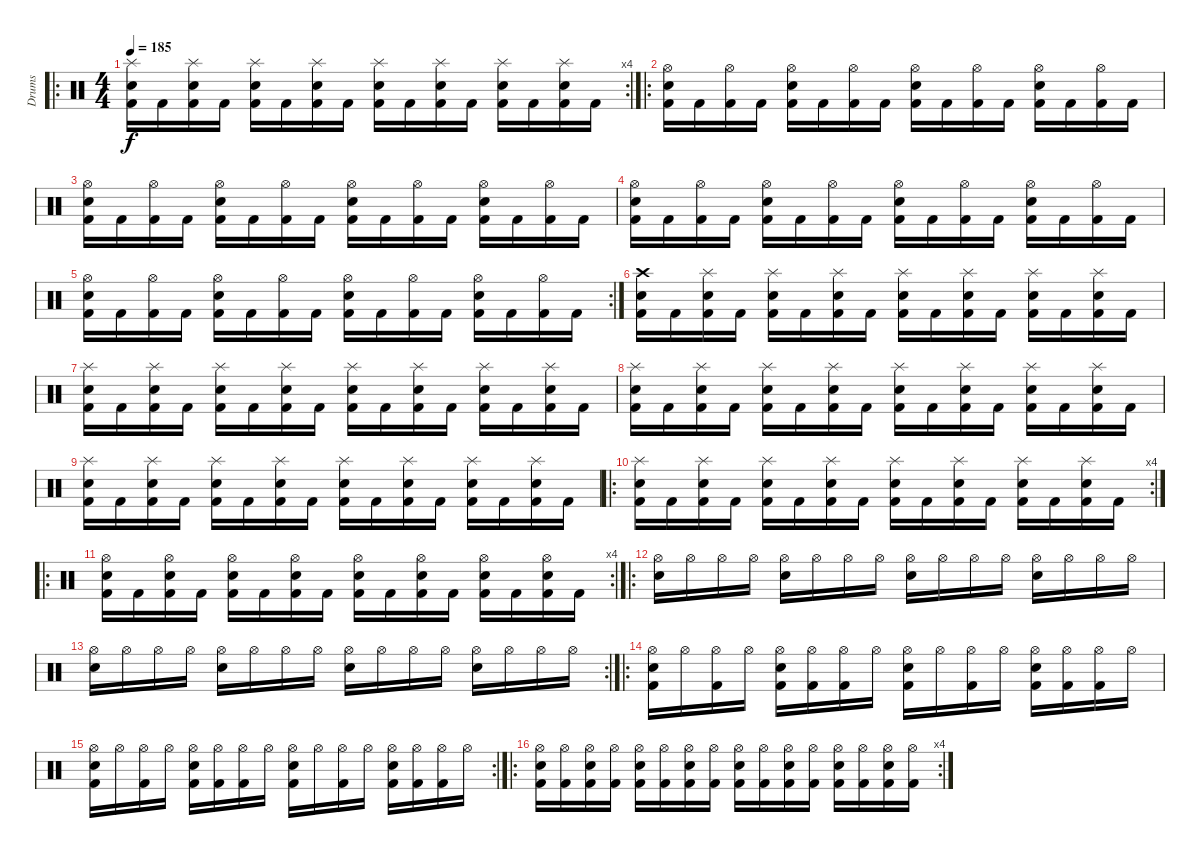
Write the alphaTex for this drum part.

\track ("Drums" "Drums") {instrument percussion}
\staff {score}
\articulation defaults
\ro
\rc 4
\ts (4 4)
\tempo 185
\clef neutral
\ks c
("Splash (hit)" "Snare (hit) 2" "Kick (hit) 2").16{dy f} "Kick (hit) 2".16 ("Splash (hit)" "Snare (hit) 2" "Kick (hit) 2").16 "Kick (hit) 2".16 ("Splash (hit)" "Snare (hit) 2" "Kick (hit) 2").16 "Kick (hit) 2".16 ("Splash (hit)" "Snare (hit) 2" "Kick (hit) 2").16 "Kick (hit) 2".16 ("Splash (hit)" "Snare (hit) 2" "Kick (hit) 2").16 "Kick (hit) 2".16 ("Splash (hit)" "Snare (hit) 2" "Kick (hit) 2").16 "Kick (hit) 2".16 ("Splash (hit)" "Snare (hit) 2" "Kick (hit) 2").16 "Kick (hit) 2".16 ("Splash (hit)" "Snare (hit) 2" "Kick (hit) 2").16 "Kick (hit) 2".16 |
\ro
("Hi-Hat (open)" "Snare (hit) 2" "Kick (hit) 2").16 "Kick (hit) 2".16 ("Hi-Hat (open)" "Kick (hit) 2").16 "Kick (hit) 2".16 ("Hi-Hat (open)" "Snare (hit) 2" "Kick (hit) 2").16 "Kick (hit) 2".16 ("Hi-Hat (open)" "Kick (hit) 2").16 "Kick (hit) 2".16 ("Hi-Hat (open)" "Snare (hit) 2" "Kick (hit) 2").16 "Kick (hit) 2".16 ("Hi-Hat (open)" "Kick (hit) 2").16 "Kick (hit) 2".16 ("Hi-Hat (open)" "Snare (hit) 2" "Kick (hit) 2").16 "Kick (hit) 2".16 ("Hi-Hat (open)" "Kick (hit) 2").16 "Kick (hit) 2".16 |
("Hi-Hat (open)" "Snare (hit) 2" "Kick (hit) 2").16 "Kick (hit) 2".16 ("Hi-Hat (open)" "Kick (hit) 2").16 "Kick (hit) 2".16 ("Hi-Hat (open)" "Snare (hit) 2" "Kick (hit) 2").16 "Kick (hit) 2".16 ("Hi-Hat (open)" "Kick (hit) 2").16 "Kick (hit) 2".16 ("Hi-Hat (open)" "Snare (hit) 2" "Kick (hit) 2").16 "Kick (hit) 2".16 ("Hi-Hat (open)" "Kick (hit) 2").16 "Kick (hit) 2".16 ("Hi-Hat (open)" "Snare (hit) 2" "Kick (hit) 2").16 "Kick (hit) 2".16 ("Hi-Hat (open)" "Kick (hit) 2").16 "Kick (hit) 2".16 |
("Hi-Hat (open)" "Snare (hit) 2" "Kick (hit) 2").16 "Kick (hit) 2".16 ("Hi-Hat (open)" "Kick (hit) 2").16 "Kick (hit) 2".16 ("Hi-Hat (open)" "Snare (hit) 2" "Kick (hit) 2").16 "Kick (hit) 2".16 ("Hi-Hat (open)" "Kick (hit) 2").16 "Kick (hit) 2".16 ("Hi-Hat (open)" "Snare (hit) 2" "Kick (hit) 2").16 "Kick (hit) 2".16 ("Hi-Hat (open)" "Kick (hit) 2").16 "Kick (hit) 2".16 ("Hi-Hat (open)" "Snare (hit) 2" "Kick (hit) 2").16 "Kick (hit) 2".16 ("Hi-Hat (open)" "Kick (hit) 2").16 "Kick (hit) 2".16 |
\rc 2
("Hi-Hat (open)" "Snare (hit) 2" "Kick (hit) 2").16 "Kick (hit) 2".16 ("Hi-Hat (open)" "Kick (hit) 2").16 "Kick (hit) 2".16 ("Hi-Hat (open)" "Snare (hit) 2" "Kick (hit) 2").16 "Kick (hit) 2".16 ("Hi-Hat (open)" "Kick (hit) 2").16 "Kick (hit) 2".16 ("Hi-Hat (open)" "Snare (hit) 2" "Kick (hit) 2").16 "Kick (hit) 2".16 ("Hi-Hat (open)" "Kick (hit) 2").16 "Kick (hit) 2".16 ("Hi-Hat (open)" "Snare (hit) 2" "Kick (hit) 2").16 "Kick (hit) 2".16 ("Hi-Hat (open)" "Kick (hit) 2").16 "Kick (hit) 2".16 |
("Crash high (hit)" "Snare (hit) 2" "Kick (hit) 2").16 "Kick (hit) 2".16 ("Splash (hit)" "Snare (hit) 2" "Kick (hit) 2").16 "Kick (hit) 2".16 ("Splash (hit)" "Snare (hit) 2" "Kick (hit) 2").16 "Kick (hit) 2".16 ("Splash (hit)" "Snare (hit) 2" "Kick (hit) 2").16 "Kick (hit) 2".16 ("Splash (hit)" "Snare (hit) 2" "Kick (hit) 2").16 "Kick (hit) 2".16 ("Splash (hit)" "Snare (hit) 2" "Kick (hit) 2").16 "Kick (hit) 2".16 ("Splash (hit)" "Snare (hit) 2" "Kick (hit) 2").16 "Kick (hit) 2".16 ("Splash (hit)" "Snare (hit) 2" "Kick (hit) 2").16 "Kick (hit) 2".16 |
("Splash (hit)" "Snare (hit) 2" "Kick (hit) 2").16 "Kick (hit) 2".16 ("Splash (hit)" "Snare (hit) 2" "Kick (hit) 2").16 "Kick (hit) 2".16 ("Splash (hit)" "Snare (hit) 2" "Kick (hit) 2").16 "Kick (hit) 2".16 ("Splash (hit)" "Snare (hit) 2" "Kick (hit) 2").16 "Kick (hit) 2".16 ("Splash (hit)" "Snare (hit) 2" "Kick (hit) 2").16 "Kick (hit) 2".16 ("Splash (hit)" "Snare (hit) 2" "Kick (hit) 2").16 "Kick (hit) 2".16 ("Splash (hit)" "Snare (hit) 2" "Kick (hit) 2").16 "Kick (hit) 2".16 ("Splash (hit)" "Snare (hit) 2" "Kick (hit) 2").16 "Kick (hit) 2".16 |
("Splash (hit)" "Snare (hit) 2" "Kick (hit) 2").16 "Kick (hit) 2".16 ("Splash (hit)" "Snare (hit) 2" "Kick (hit) 2").16 "Kick (hit) 2".16 ("Splash (hit)" "Snare (hit) 2" "Kick (hit) 2").16 "Kick (hit) 2".16 ("Splash (hit)" "Snare (hit) 2" "Kick (hit) 2").16 "Kick (hit) 2".16 ("Splash (hit)" "Snare (hit) 2" "Kick (hit) 2").16 "Kick (hit) 2".16 ("Splash (hit)" "Snare (hit) 2" "Kick (hit) 2").16 "Kick (hit) 2".16 ("Splash (hit)" "Snare (hit) 2" "Kick (hit) 2").16 "Kick (hit) 2".16 ("Splash (hit)" "Snare (hit) 2" "Kick (hit) 2").16 "Kick (hit) 2".16 |
("Splash (hit)" "Snare (hit) 2" "Kick (hit) 2").16 "Kick (hit) 2".16 ("Splash (hit)" "Snare (hit) 2" "Kick (hit) 2").16 "Kick (hit) 2".16 ("Splash (hit)" "Snare (hit) 2" "Kick (hit) 2").16 "Kick (hit) 2".16 ("Splash (hit)" "Snare (hit) 2" "Kick (hit) 2").16 "Kick (hit) 2".16 ("Splash (hit)" "Snare (hit) 2" "Kick (hit) 2").16 "Kick (hit) 2".16 ("Splash (hit)" "Snare (hit) 2" "Kick (hit) 2").16 "Kick (hit) 2".16 ("Splash (hit)" "Snare (hit) 2" "Kick (hit) 2").16 "Kick (hit) 2".16 ("Splash (hit)" "Snare (hit) 2" "Kick (hit) 2").16 "Kick (hit) 2".16 |
\ro
\rc 4
("Splash (hit)" "Snare (hit) 2" "Kick (hit) 2").16 "Kick (hit) 2".16 ("Splash (hit)" "Snare (hit) 2" "Kick (hit) 2").16 "Kick (hit) 2".16 ("Splash (hit)" "Snare (hit) 2" "Kick (hit) 2").16 "Kick (hit) 2".16 ("Splash (hit)" "Snare (hit) 2" "Kick (hit) 2").16 "Kick (hit) 2".16 ("Splash (hit)" "Snare (hit) 2" "Kick (hit) 2").16 "Kick (hit) 2".16 ("Splash (hit)" "Snare (hit) 2" "Kick (hit) 2").16 "Kick (hit) 2".16 ("Splash (hit)" "Snare (hit) 2" "Kick (hit) 2").16 "Kick (hit) 2".16 ("Splash (hit)" "Snare (hit) 2" "Kick (hit) 2").16 "Kick (hit) 2".16 |
\ro
\rc 4
("Hi-Hat (open)" "Snare (hit) 2" "Kick (hit) 2").16 "Kick (hit) 2".16 ("Hi-Hat (open)" "Snare (hit) 2" "Kick (hit) 2").16 "Kick (hit) 2".16 ("Hi-Hat (open)" "Snare (hit) 2" "Kick (hit) 2").16 "Kick (hit) 2".16 ("Hi-Hat (open)" "Snare (hit) 2" "Kick (hit) 2").16 "Kick (hit) 2".16 ("Hi-Hat (open)" "Snare (hit) 2" "Kick (hit) 2").16 "Kick (hit) 2".16 ("Hi-Hat (open)" "Snare (hit) 2" "Kick (hit) 2").16 "Kick (hit) 2".16 ("Hi-Hat (open)" "Snare (hit) 2" "Kick (hit) 2").16 "Kick (hit) 2".16 ("Hi-Hat (open)" "Snare (hit) 2" "Kick (hit) 2").16 "Kick (hit) 2".16 |
\ro
("Hi-Hat (open)" "Snare (hit) 2").16 "Hi-Hat (open)".16 "Hi-Hat (open)".16 "Hi-Hat (open)".16 ("Hi-Hat (open)" "Snare (hit) 2").16 "Hi-Hat (open)".16 "Hi-Hat (open)".16 "Hi-Hat (open)".16 ("Hi-Hat (open)" "Snare (hit) 2").16 "Hi-Hat (open)".16 "Hi-Hat (open)".16 "Hi-Hat (open)".16 ("Hi-Hat (open)" "Snare (hit) 2").16 "Hi-Hat (open)".16 "Hi-Hat (open)".16 "Hi-Hat (open)".16 |
\rc 2
("Hi-Hat (open)" "Snare (hit) 2").16 "Hi-Hat (open)".16 "Hi-Hat (open)".16 "Hi-Hat (open)".16 ("Hi-Hat (open)" "Snare (hit) 2").16 "Hi-Hat (open)".16 "Hi-Hat (open)".16 "Hi-Hat (open)".16 ("Hi-Hat (open)" "Snare (hit) 2").16 "Hi-Hat (open)".16 "Hi-Hat (open)".16 "Hi-Hat (open)".16 ("Hi-Hat (open)" "Snare (hit) 2").16 "Hi-Hat (open)".16 "Hi-Hat (open)".16 "Hi-Hat (open)".16 |
\ro
("Hi-Hat (open)" "Snare (hit) 2" "Kick (hit) 2").16 "Hi-Hat (open)".16 ("Hi-Hat (open)" "Kick (hit) 2").16 "Hi-Hat (open)".16 ("Hi-Hat (open)" "Snare (hit) 2" "Kick (hit) 2").16 ("Hi-Hat (open)" "Kick (hit) 2").16 ("Hi-Hat (open)" "Kick (hit) 2").16 "Hi-Hat (open)".16 ("Hi-Hat (open)" "Snare (hit) 2" "Kick (hit) 2").16 "Hi-Hat (open)".16 ("Hi-Hat (open)" "Kick (hit) 2").16 "Hi-Hat (open)".16 ("Hi-Hat (open)" "Snare (hit) 2" "Kick (hit) 2").16 ("Hi-Hat (open)" "Kick (hit) 2").16 ("Hi-Hat (open)" "Kick (hit) 2").16 "Hi-Hat (open)".16 |
\rc 2
("Hi-Hat (open)" "Snare (hit) 2" "Kick (hit) 2").16 "Hi-Hat (open)".16 ("Hi-Hat (open)" "Kick (hit) 2").16 "Hi-Hat (open)".16 ("Hi-Hat (open)" "Snare (hit) 2" "Kick (hit) 2").16 ("Hi-Hat (open)" "Kick (hit) 2").16 ("Hi-Hat (open)" "Kick (hit) 2").16 "Hi-Hat (open)".16 ("Hi-Hat (open)" "Snare (hit) 2" "Kick (hit) 2").16 "Hi-Hat (open)".16 ("Hi-Hat (open)" "Kick (hit) 2").16 "Hi-Hat (open)".16 ("Hi-Hat (open)" "Snare (hit) 2" "Kick (hit) 2").16 ("Hi-Hat (open)" "Kick (hit) 2").16 ("Hi-Hat (open)" "Kick (hit) 2").16 "Hi-Hat (open)".16 |
\ro
\rc 4
("Hi-Hat (open)" "Snare (hit) 2" "Kick (hit) 2").16 ("Hi-Hat (open)" "Kick (hit) 2").16 ("Hi-Hat (open)" "Snare (hit) 2" "Kick (hit) 2").16 ("Hi-Hat (open)" "Kick (hit) 2").16 ("Hi-Hat (open)" "Snare (hit) 2" "Kick (hit) 2").16 ("Hi-Hat (open)" "Kick (hit) 2").16 ("Hi-Hat (open)" "Snare (hit) 2" "Kick (hit) 2").16 ("Hi-Hat (open)" "Kick (hit) 2").16 ("Hi-Hat (open)" "Snare (hit) 2" "Kick (hit) 2").16 ("Hi-Hat (open)" "Kick (hit) 2").16 ("Hi-Hat (open)" "Snare (hit) 2" "Kick (hit) 2").16 ("Hi-Hat (open)" "Kick (hit) 2").16 ("Hi-Hat (open)" "Snare (hit) 2" "Kick (hit) 2").16 ("Hi-Hat (open)" "Kick (hit) 2").16 ("Hi-Hat (open)" "Snare (hit) 2" "Kick (hit) 2").16 ("Hi-Hat (open)" "Kick (hit) 2").16
